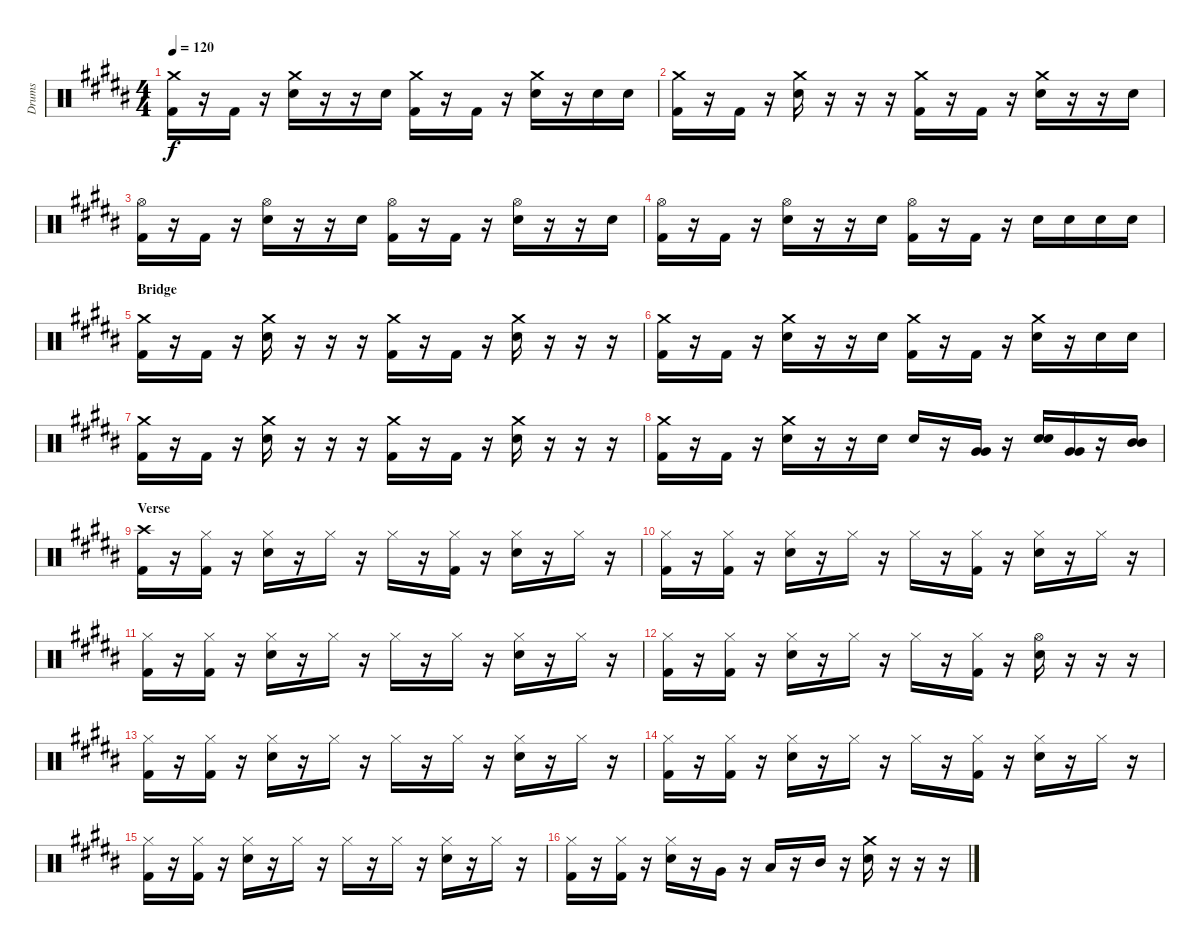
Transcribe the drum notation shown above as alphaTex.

\track ("Drums" "Drums") {instrument percussion}
\staff {score}
\articulation defaults
\ts (4 4)
\tempo 120
\clef neutral
\ks b
("Crash medium (hit)" "Kick (hit) 2").16{dy f} r.16 "Kick (hit) 2".16 r.16 ("Crash medium (hit)" "Snare (hit) 2").16 r.16 r.16 "Snare (hit) 2".16 ("Crash medium (hit)" "Kick (hit) 2").16 r.16 "Kick (hit) 2".16 r.16 ("Crash medium (hit)" "Snare (hit) 2").16 r.16 "Snare (hit) 2".16 "Snare (hit) 2".16 |
("Crash medium (hit)" "Kick (hit) 2").16 r.16 "Kick (hit) 2".16 r.16 ("Crash medium (hit)" "Snare (hit) 2").16 r.16 r.16 r.16 ("Crash medium (hit)" "Kick (hit) 2").16 r.16 "Kick (hit) 2".16 r.16 ("Crash medium (hit)" "Snare (hit) 2").16 r.16 r.16 "Snare (hit) 2".16 |
("Hi-Hat (open)" "Kick (hit) 2").16 r.16 "Kick (hit) 2".16 r.16 ("Hi-Hat (open)" "Snare (hit) 2").16 r.16 r.16 "Snare (hit) 2".16 ("Hi-Hat (open)" "Kick (hit) 2").16 r.16 "Kick (hit) 2".16 r.16 ("Hi-Hat (open)" "Snare (hit) 2").16 r.16 r.16 "Snare (hit) 2".16 |
("Hi-Hat (open)" "Kick (hit) 2").16 r.16 "Kick (hit) 2".16 r.16 ("Hi-Hat (open)" "Snare (hit) 2").16 r.16 r.16 "Snare (hit) 2".16 ("Hi-Hat (open)" "Kick (hit) 2").16 r.16 "Kick (hit) 2".16 r.16 "Snare (hit) 2".16 "Snare (hit) 2".16 "Snare (hit) 2".16 "Snare (hit) 2".16 |
\section ("" "Bridge")
("Crash medium (hit)" "Kick (hit) 2").16 r.16 "Kick (hit) 2".16 r.16 ("Crash medium (hit)" "Snare (hit) 2").16 r.16 r.16 r.16 ("Crash medium (hit)" "Kick (hit) 2").16 r.16 "Kick (hit) 2".16 r.16 ("Crash medium (hit)" "Snare (hit) 2").16 r.16 r.16 r.16 |
("Crash medium (hit)" "Kick (hit) 2").16 r.16 "Kick (hit) 2".16 r.16 ("Crash medium (hit)" "Snare (hit) 2").16 r.16 r.16 "Snare (hit) 2".16 ("Crash medium (hit)" "Kick (hit) 2").16 r.16 "Kick (hit) 2".16 r.16 ("Crash medium (hit)" "Snare (hit) 2").16 r.16 "Snare (hit) 2".16 "Snare (hit) 2".16 |
("Crash medium (hit)" "Kick (hit) 2").16 r.16 "Kick (hit) 2".16 r.16 ("Crash medium (hit)" "Snare (hit) 2").16 r.16 r.16 r.16 ("Crash medium (hit)" "Kick (hit) 2").16 r.16 "Kick (hit) 2".16 r.16 ("Crash medium (hit)" "Snare (hit) 2").16 r.16 r.16 r.16 |
("Crash medium (hit)" "Kick (hit) 2").16 r.16 "Kick (hit) 2".16 r.16 ("Crash medium (hit)" "Snare (hit) 2").16 r.16 r.16 "Snare (hit) 2".16 "Snare (hit) 2".16 r.16 ("Very Low Tom (hit)" "Very Low Tom (hit)").16 r.16 ("Snare (hit) 2" "Snare (hit) 2").16 ("Very Low Tom (hit)" "Very Low Tom (hit)").16 r.16 ("Mid Tom (hit)" "Mid Tom (hit)").16 |
\section ("" "Verse")
("Crash high (hit)" "Kick (hit) 2").16 r.16 ("Hi-Hat (closed)" "Kick (hit) 2").16 r.16 ("Hi-Hat (closed)" "Snare (hit) 2").16 r.16 "Hi-Hat (closed)".16 r.16 "Hi-Hat (closed)".16 r.16 ("Hi-Hat (closed)" "Kick (hit) 2").16 r.16 ("Hi-Hat (closed)" "Snare (hit) 2").16 r.16 "Hi-Hat (closed)".16 r.16 |
("Hi-Hat (closed)" "Kick (hit) 2").16 r.16 ("Hi-Hat (closed)" "Kick (hit) 2").16 r.16 ("Hi-Hat (closed)" "Snare (hit) 2").16 r.16 "Hi-Hat (closed)".16 r.16 "Hi-Hat (closed)".16 r.16 ("Hi-Hat (closed)" "Kick (hit) 2").16 r.16 ("Hi-Hat (closed)" "Snare (hit) 2").16 r.16 "Hi-Hat (closed)".16 r.16 |
("Hi-Hat (closed)" "Kick (hit) 2").16 r.16 ("Hi-Hat (closed)" "Kick (hit) 2").16 r.16 ("Hi-Hat (closed)" "Snare (hit) 2").16 r.16 "Hi-Hat (closed)".16 r.16 "Hi-Hat (closed)".16 r.16 "Hi-Hat (closed)".16 r.16 ("Hi-Hat (closed)" "Snare (hit) 2").16 r.16 "Hi-Hat (closed)".16 r.16 |
("Hi-Hat (closed)" "Kick (hit) 2").16 r.16 ("Hi-Hat (closed)" "Kick (hit) 2").16 r.16 ("Hi-Hat (closed)" "Snare (hit) 2").16 r.16 "Hi-Hat (closed)".16 r.16 "Hi-Hat (closed)".16 r.16 ("Hi-Hat (closed)" "Kick (hit) 2").16 r.16 ("Hi-Hat (open)" "Snare (hit) 2").16 r.16 r.16 r.16 |
("Hi-Hat (closed)" "Kick (hit) 2").16 r.16 ("Hi-Hat (closed)" "Kick (hit) 2").16 r.16 ("Hi-Hat (closed)" "Snare (hit) 2").16 r.16 "Hi-Hat (closed)".16 r.16 "Hi-Hat (closed)".16 r.16 "Hi-Hat (closed)".16 r.16 ("Hi-Hat (closed)" "Snare (hit) 2").16 r.16 "Hi-Hat (closed)".16 r.16 |
("Hi-Hat (closed)" "Kick (hit) 2").16 r.16 ("Hi-Hat (closed)" "Kick (hit) 2").16 r.16 ("Hi-Hat (closed)" "Snare (hit) 2").16 r.16 "Hi-Hat (closed)".16 r.16 "Hi-Hat (closed)".16 r.16 ("Hi-Hat (closed)" "Kick (hit) 2").16 r.16 ("Hi-Hat (closed)" "Snare (hit) 2").16 r.16 "Hi-Hat (closed)".16 r.16 |
("Hi-Hat (closed)" "Kick (hit) 2").16 r.16 ("Hi-Hat (closed)" "Kick (hit) 2").16 r.16 ("Hi-Hat (closed)" "Snare (hit) 2").16 r.16 "Hi-Hat (closed)".16 r.16 "Hi-Hat (closed)".16 r.16 "Hi-Hat (closed)".16 r.16 ("Hi-Hat (closed)" "Snare (hit) 2").16 r.16 "Hi-Hat (closed)".16 r.16 |
("Hi-Hat (closed)" "Kick (hit) 2").16 r.16 ("Hi-Hat (closed)" "Kick (hit) 2").16 r.16 ("Hi-Hat (closed)" "Snare (hit) 2").16 r.16 "Very Low Tom (hit)".16 r.16 "Low Tom (hit)".16 r.16 "Mid Tom (hit)".16 r.16 ("Crash medium (hit)" "Snare (hit) 2").16 r.16 r.16 r.16
